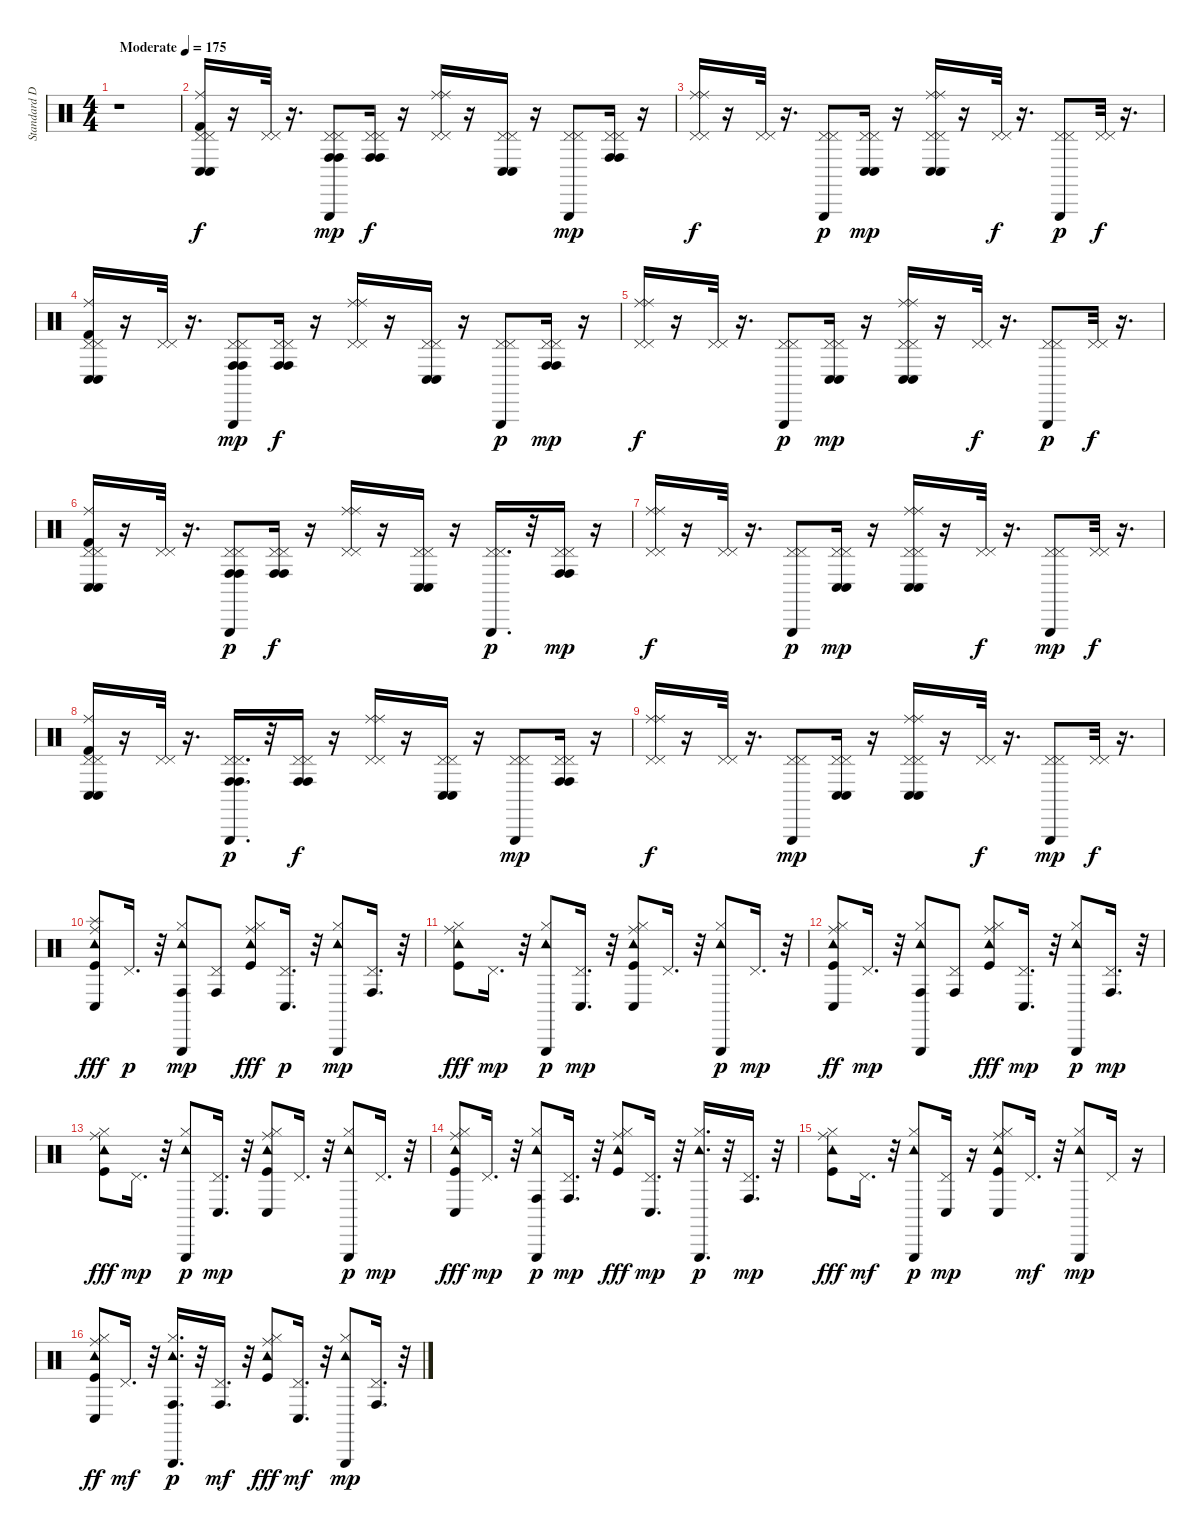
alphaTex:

\track ("Standard Drums" "Standard D") {instrument percussion}
\staff {score}
\articulation defaults
\ts (4 4)
\tempo (175 "Moderate")
\clef neutral
\ks c
r.1{dy f} |
("Pedal Hi-Hat (hit)" "Conga low (hit)" "Ride (middle)" "Kick (hit) 2" "Pedal Hi-Hat (hit)" "Conga low (hit)").16 r.16 ("Pedal Hi-Hat (hit)" "Pedal Hi-Hat (hit)").32 r.16{d} ("Triangle (hit)" "Pedal Hi-Hat (hit)" "Conga high (hit)" "Pedal Hi-Hat (hit)" "Conga high (hit)").8{dy mp} ("Pedal Hi-Hat (hit)" "Conga high (hit)" "Pedal Hi-Hat (hit)" "Conga high (hit)").16{dy f} r.16 ("Pedal Hi-Hat (hit)" "Ride (middle)" "Pedal Hi-Hat (hit)" "Ride (middle)").16 r.16 ("Pedal Hi-Hat (hit)" "Conga low (hit)" "Pedal Hi-Hat (hit)" "Conga low (hit)").16 r.16 ("Triangle (hit)" "Pedal Hi-Hat (hit)" "Pedal Hi-Hat (hit)").8{dy mp} ("Pedal Hi-Hat (hit)" "Conga high (hit)" "Pedal Hi-Hat (hit)" "Conga high (hit)").16 r.16 |
("Pedal Hi-Hat (hit)" "Ride (middle)" "Pedal Hi-Hat (hit)" "Ride (middle)").16{dy f} r.16 ("Pedal Hi-Hat (hit)" "Pedal Hi-Hat (hit)").32 r.16{d} ("Triangle (hit)" "Pedal Hi-Hat (hit)" "Pedal Hi-Hat (hit)").8{dy p} ("Pedal Hi-Hat (hit)" "Conga low (hit)" "Pedal Hi-Hat (hit)" "Conga low (hit)").16{dy mp} r.16 ("Pedal Hi-Hat (hit)" "Conga low (hit)" "Ride (middle)" "Pedal Hi-Hat (hit)" "Conga low (hit)" "Ride (middle)").16 r.16 ("Pedal Hi-Hat (hit)" "Pedal Hi-Hat (hit)").32{dy f} r.16{d} ("Triangle (hit)" "Pedal Hi-Hat (hit)" "Pedal Hi-Hat (hit)").8{dy p} ("Pedal Hi-Hat (hit)" "Pedal Hi-Hat (hit)").32{dy f} r.16{d} |
("Kick (hit) 2" "Pedal Hi-Hat (hit)" "Conga low (hit)" "Ride (middle)" "Pedal Hi-Hat (hit)" "Conga low (hit)").16 r.16 ("Pedal Hi-Hat (hit)" "Pedal Hi-Hat (hit)").32 r.16{d} ("Triangle (hit)" "Pedal Hi-Hat (hit)" "Conga high (hit)" "Pedal Hi-Hat (hit)" "Conga high (hit)").8{dy mp} ("Pedal Hi-Hat (hit)" "Conga high (hit)" "Pedal Hi-Hat (hit)" "Conga high (hit)").16{dy f} r.16 ("Pedal Hi-Hat (hit)" "Ride (middle)" "Pedal Hi-Hat (hit)" "Ride (middle)").16 r.16 ("Pedal Hi-Hat (hit)" "Conga low (hit)" "Pedal Hi-Hat (hit)" "Conga low (hit)").16 r.16 ("Triangle (hit)" "Pedal Hi-Hat (hit)" "Pedal Hi-Hat (hit)").8{dy p} ("Pedal Hi-Hat (hit)" "Conga high (hit)" "Pedal Hi-Hat (hit)" "Conga high (hit)").16{dy mp} r.16 |
("Pedal Hi-Hat (hit)" "Ride (middle)" "Pedal Hi-Hat (hit)" "Ride (middle)").16{dy f} r.16 ("Pedal Hi-Hat (hit)" "Pedal Hi-Hat (hit)").32 r.16{d} ("Triangle (hit)" "Pedal Hi-Hat (hit)" "Pedal Hi-Hat (hit)").8{dy p} ("Pedal Hi-Hat (hit)" "Conga low (hit)" "Pedal Hi-Hat (hit)" "Conga low (hit)").16{dy mp} r.16 ("Pedal Hi-Hat (hit)" "Conga low (hit)" "Ride (middle)" "Pedal Hi-Hat (hit)" "Conga low (hit)" "Ride (middle)").16 r.16 ("Pedal Hi-Hat (hit)" "Pedal Hi-Hat (hit)").32{dy f} r.16{d} ("Triangle (hit)" "Pedal Hi-Hat (hit)" "Pedal Hi-Hat (hit)").8{dy p} ("Pedal Hi-Hat (hit)" "Pedal Hi-Hat (hit)").32{dy f} r.16{d} |
("Pedal Hi-Hat (hit)" "Conga low (hit)" "Ride (middle)" "Kick (hit) 2" "Pedal Hi-Hat (hit)" "Conga low (hit)").16 r.16 ("Pedal Hi-Hat (hit)" "Pedal Hi-Hat (hit)").32 r.16{d} ("Triangle (hit)" "Pedal Hi-Hat (hit)" "Conga high (hit)" "Pedal Hi-Hat (hit)" "Conga high (hit)").8{dy p} ("Pedal Hi-Hat (hit)" "Conga high (hit)" "Pedal Hi-Hat (hit)" "Conga high (hit)").16{dy f} r.16 ("Pedal Hi-Hat (hit)" "Ride (middle)" "Pedal Hi-Hat (hit)" "Ride (middle)").16 r.16 ("Pedal Hi-Hat (hit)" "Conga low (hit)" "Pedal Hi-Hat (hit)" "Conga low (hit)").16 r.16 ("Triangle (hit)" "Pedal Hi-Hat (hit)" "Pedal Hi-Hat (hit)").16{d dy p} r.32 ("Pedal Hi-Hat (hit)" "Conga high (hit)" "Pedal Hi-Hat (hit)" "Conga high (hit)").16{dy mp} r.16 |
("Pedal Hi-Hat (hit)" "Ride (middle)" "Pedal Hi-Hat (hit)" "Ride (middle)").16{dy f} r.16 ("Pedal Hi-Hat (hit)" "Pedal Hi-Hat (hit)").32 r.16{d} ("Triangle (hit)" "Pedal Hi-Hat (hit)" "Pedal Hi-Hat (hit)").8{dy p} ("Pedal Hi-Hat (hit)" "Conga low (hit)" "Pedal Hi-Hat (hit)" "Conga low (hit)").16{dy mp} r.16 ("Pedal Hi-Hat (hit)" "Conga low (hit)" "Ride (middle)" "Pedal Hi-Hat (hit)" "Conga low (hit)" "Ride (middle)").16 r.16 ("Pedal Hi-Hat (hit)" "Pedal Hi-Hat (hit)").32{dy f} r.16{d} ("Triangle (hit)" "Pedal Hi-Hat (hit)" "Pedal Hi-Hat (hit)").8{dy mp} ("Pedal Hi-Hat (hit)" "Pedal Hi-Hat (hit)").32{dy f} r.16{d} |
("Pedal Hi-Hat (hit)" "Conga low (hit)" "Ride (middle)" "Kick (hit) 2" "Pedal Hi-Hat (hit)" "Conga low (hit)").16 r.16 ("Pedal Hi-Hat (hit)" "Pedal Hi-Hat (hit)").32 r.16{d} ("Triangle (hit)" "Pedal Hi-Hat (hit)" "Conga high (hit)" "Pedal Hi-Hat (hit)" "Conga high (hit)").16{d dy p} r.32 ("Pedal Hi-Hat (hit)" "Conga high (hit)" "Pedal Hi-Hat (hit)" "Conga high (hit)").16{dy f} r.16 ("Pedal Hi-Hat (hit)" "Ride (middle)" "Pedal Hi-Hat (hit)" "Ride (middle)").16 r.16 ("Pedal Hi-Hat (hit)" "Conga low (hit)" "Pedal Hi-Hat (hit)" "Conga low (hit)").16 r.16 ("Triangle (hit)" "Pedal Hi-Hat (hit)" "Pedal Hi-Hat (hit)").8{dy mp} ("Pedal Hi-Hat (hit)" "Conga high (hit)" "Pedal Hi-Hat (hit)" "Conga high (hit)").16 r.16 |
("Pedal Hi-Hat (hit)" "Ride (middle)" "Pedal Hi-Hat (hit)" "Ride (middle)").16{dy f} r.16 ("Pedal Hi-Hat (hit)" "Pedal Hi-Hat (hit)").32 r.16{d} ("Triangle (hit)" "Pedal Hi-Hat (hit)" "Pedal Hi-Hat (hit)").8{dy mp} ("Pedal Hi-Hat (hit)" "Conga low (hit)" "Pedal Hi-Hat (hit)" "Conga low (hit)").16 r.16 ("Pedal Hi-Hat (hit)" "Conga low (hit)" "Ride (middle)" "Pedal Hi-Hat (hit)" "Conga low (hit)" "Ride (middle)").16 r.16 ("Pedal Hi-Hat (hit)" "Pedal Hi-Hat (hit)").32{dy f} r.16{d} ("Triangle (hit)" "Pedal Hi-Hat (hit)" "Pedal Hi-Hat (hit)").8{dy mp} ("Pedal Hi-Hat (hit)" "Pedal Hi-Hat (hit)").32{dy f} r.16{d} |
("Kick (hit)" "Splash (hit)" "Tambourine (hit)" "Conga low (hit)" "Ride (middle)").8{dy fff} "Pedal Hi-Hat (hit)".16{d dy p} r.32 ("Hi-Hat (closed)" "Triangle (hit)" "Tambourine (hit)" "Conga high (hit)").8{dy mp} ("Pedal Hi-Hat (hit)" "Conga high (hit)").8 ("Kick (hit)" "Hi-Hat (closed)" "Tambourine (hit)" "Ride (middle)").8{dy fff} ("Pedal Hi-Hat (hit)" "Conga low (hit)").16{d dy p} r.32 ("Hi-Hat (closed)" "Triangle (hit)" "Tambourine (hit)").8{dy mp} ("Pedal Hi-Hat (hit)" "Conga high (hit)").16{d} r.32 |
("Kick (hit)" "Hi-Hat (closed)" "Tambourine (hit)" "Ride (middle)").8{dy fff} "Pedal Hi-Hat (hit)".16{d dy mp} r.32 ("Hi-Hat (closed)" "Triangle (hit)" "Tambourine (hit)").8{dy p} ("Pedal Hi-Hat (hit)" "Conga low (hit)").16{d dy mp} r.32 ("Kick (hit)" "Hi-Hat (closed)" "Tambourine (hit)" "Conga low (hit)" "Ride (middle)").8 "Pedal Hi-Hat (hit)".16{d} r.32 ("Hi-Hat (closed)" "Triangle (hit)" "Tambourine (hit)").8{dy p} "Pedal Hi-Hat (hit)".16{d dy mp} r.32 |
("Kick (hit)" "Hi-Hat (closed)" "Tambourine (hit)" "Conga low (hit)" "Ride (middle)").8{dy ff} "Pedal Hi-Hat (hit)".16{d dy mp} r.32 ("Hi-Hat (closed)" "Triangle (hit)" "Tambourine (hit)" "Conga high (hit)").8 ("Pedal Hi-Hat (hit)" "Conga high (hit)").8 ("Kick (hit)" "Hi-Hat (closed)" "Tambourine (hit)" "Ride (middle)").8{dy fff} ("Pedal Hi-Hat (hit)" "Conga low (hit)").16{d dy mp} r.32 ("Hi-Hat (closed)" "Triangle (hit)" "Tambourine (hit)").8{dy p} ("Pedal Hi-Hat (hit)" "Conga high (hit)").16{d dy mp} r.32 |
("Kick (hit)" "Hi-Hat (closed)" "Tambourine (hit)" "Ride (middle)").8{dy fff} "Pedal Hi-Hat (hit)".16{d dy mp} r.32 ("Hi-Hat (closed)" "Triangle (hit)" "Tambourine (hit)").8{dy p} ("Pedal Hi-Hat (hit)" "Conga low (hit)").16{d dy mp} r.32 ("Kick (hit)" "Hi-Hat (closed)" "Tambourine (hit)" "Conga low (hit)" "Ride (middle)").8 "Pedal Hi-Hat (hit)".16{d} r.32 ("Hi-Hat (closed)" "Triangle (hit)" "Tambourine (hit)").8{dy p} "Pedal Hi-Hat (hit)".16{d dy mp} r.32 |
("Kick (hit)" "Hi-Hat (closed)" "Tambourine (hit)" "Conga low (hit)" "Ride (middle)").8{dy fff} "Pedal Hi-Hat (hit)".16{d dy mp} r.32 ("Hi-Hat (closed)" "Triangle (hit)" "Tambourine (hit)" "Conga high (hit)").8{dy p} ("Pedal Hi-Hat (hit)" "Conga high (hit)").16{d dy mp} r.32 ("Kick (hit)" "Hi-Hat (closed)" "Tambourine (hit)" "Ride (middle)").8{dy fff} ("Pedal Hi-Hat (hit)" "Conga low (hit)").16{d dy mp} r.32 ("Hi-Hat (closed)" "Triangle (hit)" "Tambourine (hit)").16{d dy p} r.32 ("Pedal Hi-Hat (hit)" "Conga high (hit)").16{d dy mp} r.32 |
("Kick (hit)" "Hi-Hat (closed)" "Tambourine (hit)" "Ride (middle)").8{dy fff} "Pedal Hi-Hat (hit)".16{d dy mf} r.32 ("Hi-Hat (closed)" "Triangle (hit)" "Tambourine (hit)").8{dy p} ("Pedal Hi-Hat (hit)" "Conga low (hit)").16{dy mp} r.16 ("Kick (hit)" "Hi-Hat (closed)" "Tambourine (hit)" "Conga low (hit)" "Ride (middle)").8 "Pedal Hi-Hat (hit)".16{d dy mf} r.32 ("Hi-Hat (closed)" "Triangle (hit)" "Tambourine (hit)").8{dy mp} "Pedal Hi-Hat (hit)".16 r.16 |
("Kick (hit)" "Hi-Hat (closed)" "Tambourine (hit)" "Conga low (hit)" "Ride (middle)").8{dy ff} "Pedal Hi-Hat (hit)".16{d dy mf} r.32 ("Hi-Hat (closed)" "Triangle (hit)" "Tambourine (hit)" "Conga high (hit)").16{d dy p} r.32 ("Pedal Hi-Hat (hit)" "Conga high (hit)").16{d dy mf} r.32 ("Kick (hit)" "Hi-Hat (closed)" "Tambourine (hit)" "Ride (middle)").8{dy fff} ("Pedal Hi-Hat (hit)" "Conga low (hit)").16{d dy mf} r.32 ("Hi-Hat (closed)" "Triangle (hit)" "Tambourine (hit)").8{dy mp} ("Pedal Hi-Hat (hit)" "Conga high (hit)").16{d} r.32
